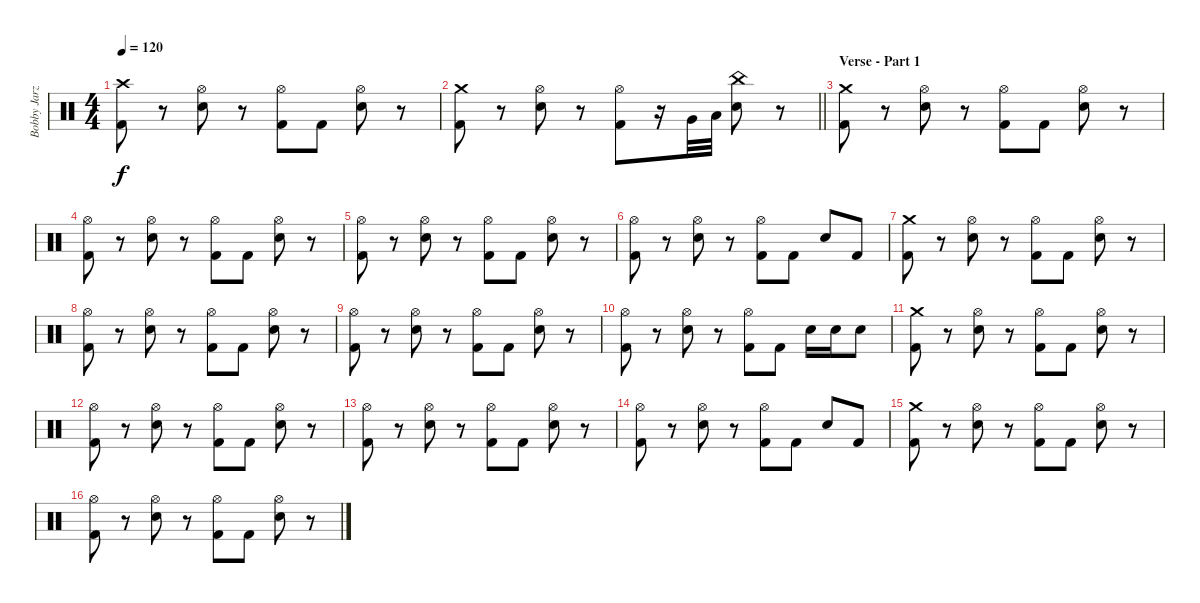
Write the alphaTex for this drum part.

\track ("Bobby Jarzombek - Drums" "Bobby Jarz") {instrument percussion}
\staff {score}
\articulation defaults
\ts (4 4)
\tempo 120
\clef neutral
\ks c
("Crash high (hit)" "Kick (hit) 2").8{dy f} r.8 ("Hi-Hat (open)" "Electric Snare (hit)").8 r.8 ("Hi-Hat (open)" "Kick (hit) 2").8 "Kick (hit) 2".8 ("Hi-Hat (open)" "Electric Snare (hit)").8 r.8 |
\barLineRight lightlight
("Crash medium (hit)" "Kick (hit) 2").8 r.8 ("Hi-Hat (open)" "Electric Snare (hit)").8 r.8 ("Hi-Hat (open)" "Kick (hit) 2").8 r.16 "Very Low Tom (hit)".32 "Low Floor Tom (hit)".32 ("China (hit)" "Electric Snare (hit)").8 r.8 |
\section ("" "Verse - Part 1")
("Crash medium (hit)" "Kick (hit) 2").8 r.8 ("Hi-Hat (open)" "Electric Snare (hit)").8 r.8 ("Hi-Hat (open)" "Kick (hit) 2").8 "Kick (hit) 2".8 ("Hi-Hat (open)" "Electric Snare (hit)").8 r.8 |
("Hi-Hat (open)" "Kick (hit) 2").8 r.8 ("Hi-Hat (open)" "Electric Snare (hit)").8 r.8 ("Hi-Hat (open)" "Kick (hit) 2").8 "Kick (hit) 2".8 ("Hi-Hat (open)" "Electric Snare (hit)").8 r.8 |
("Hi-Hat (open)" "Kick (hit) 2").8 r.8 ("Hi-Hat (open)" "Electric Snare (hit)").8 r.8 ("Hi-Hat (open)" "Kick (hit) 2").8 "Kick (hit) 2".8 ("Hi-Hat (open)" "Electric Snare (hit)").8 r.8 |
("Hi-Hat (open)" "Kick (hit) 2").8 r.8 ("Hi-Hat (open)" "Electric Snare (hit)").8 r.8 ("Hi-Hat (open)" "Kick (hit) 2").8 "Kick (hit) 2".8 "Electric Snare (hit)".8 "Kick (hit) 2".8 |
("Crash medium (hit)" "Kick (hit) 2").8 r.8 ("Hi-Hat (open)" "Electric Snare (hit)").8 r.8 ("Hi-Hat (open)" "Kick (hit) 2").8 "Kick (hit) 2".8 ("Hi-Hat (open)" "Electric Snare (hit)").8 r.8 |
("Hi-Hat (open)" "Kick (hit) 2").8 r.8 ("Hi-Hat (open)" "Electric Snare (hit)").8 r.8 ("Hi-Hat (open)" "Kick (hit) 2").8 "Kick (hit) 2".8 ("Hi-Hat (open)" "Electric Snare (hit)").8 r.8 |
("Hi-Hat (open)" "Kick (hit) 2").8 r.8 ("Hi-Hat (open)" "Electric Snare (hit)").8 r.8 ("Hi-Hat (open)" "Kick (hit) 2").8 "Kick (hit) 2".8 ("Hi-Hat (open)" "Electric Snare (hit)").8 r.8 |
("Hi-Hat (open)" "Kick (hit) 2").8 r.8 ("Hi-Hat (open)" "Electric Snare (hit)").8 r.8 ("Hi-Hat (open)" "Kick (hit) 2").8 "Kick (hit) 2".8 "Electric Snare (hit)".16 "Electric Snare (hit)".16 "Electric Snare (hit)".8 |
("Crash medium (hit)" "Kick (hit) 2").8 r.8 ("Hi-Hat (open)" "Electric Snare (hit)").8 r.8 ("Hi-Hat (open)" "Kick (hit) 2").8 "Kick (hit) 2".8 ("Hi-Hat (open)" "Electric Snare (hit)").8 r.8 |
("Hi-Hat (open)" "Kick (hit) 2").8 r.8 ("Hi-Hat (open)" "Electric Snare (hit)").8 r.8 ("Hi-Hat (open)" "Kick (hit) 2").8 "Kick (hit) 2".8 ("Hi-Hat (open)" "Electric Snare (hit)").8 r.8 |
("Hi-Hat (open)" "Kick (hit) 2").8 r.8 ("Hi-Hat (open)" "Electric Snare (hit)").8 r.8 ("Hi-Hat (open)" "Kick (hit) 2").8 "Kick (hit) 2".8 ("Hi-Hat (open)" "Electric Snare (hit)").8 r.8 |
("Hi-Hat (open)" "Kick (hit) 2").8 r.8 ("Hi-Hat (open)" "Electric Snare (hit)").8 r.8 ("Hi-Hat (open)" "Kick (hit) 2").8 "Kick (hit) 2".8 "Electric Snare (hit)".8 "Kick (hit) 2".8 |
("Crash medium (hit)" "Kick (hit) 2").8 r.8 ("Hi-Hat (open)" "Electric Snare (hit)").8 r.8 ("Hi-Hat (open)" "Kick (hit) 2").8 "Kick (hit) 2".8 ("Hi-Hat (open)" "Electric Snare (hit)").8 r.8 |
("Hi-Hat (open)" "Kick (hit) 2").8 r.8 ("Hi-Hat (open)" "Electric Snare (hit)").8 r.8 ("Hi-Hat (open)" "Kick (hit) 2").8 "Kick (hit) 2".8 ("Hi-Hat (open)" "Electric Snare (hit)").8 r.8
